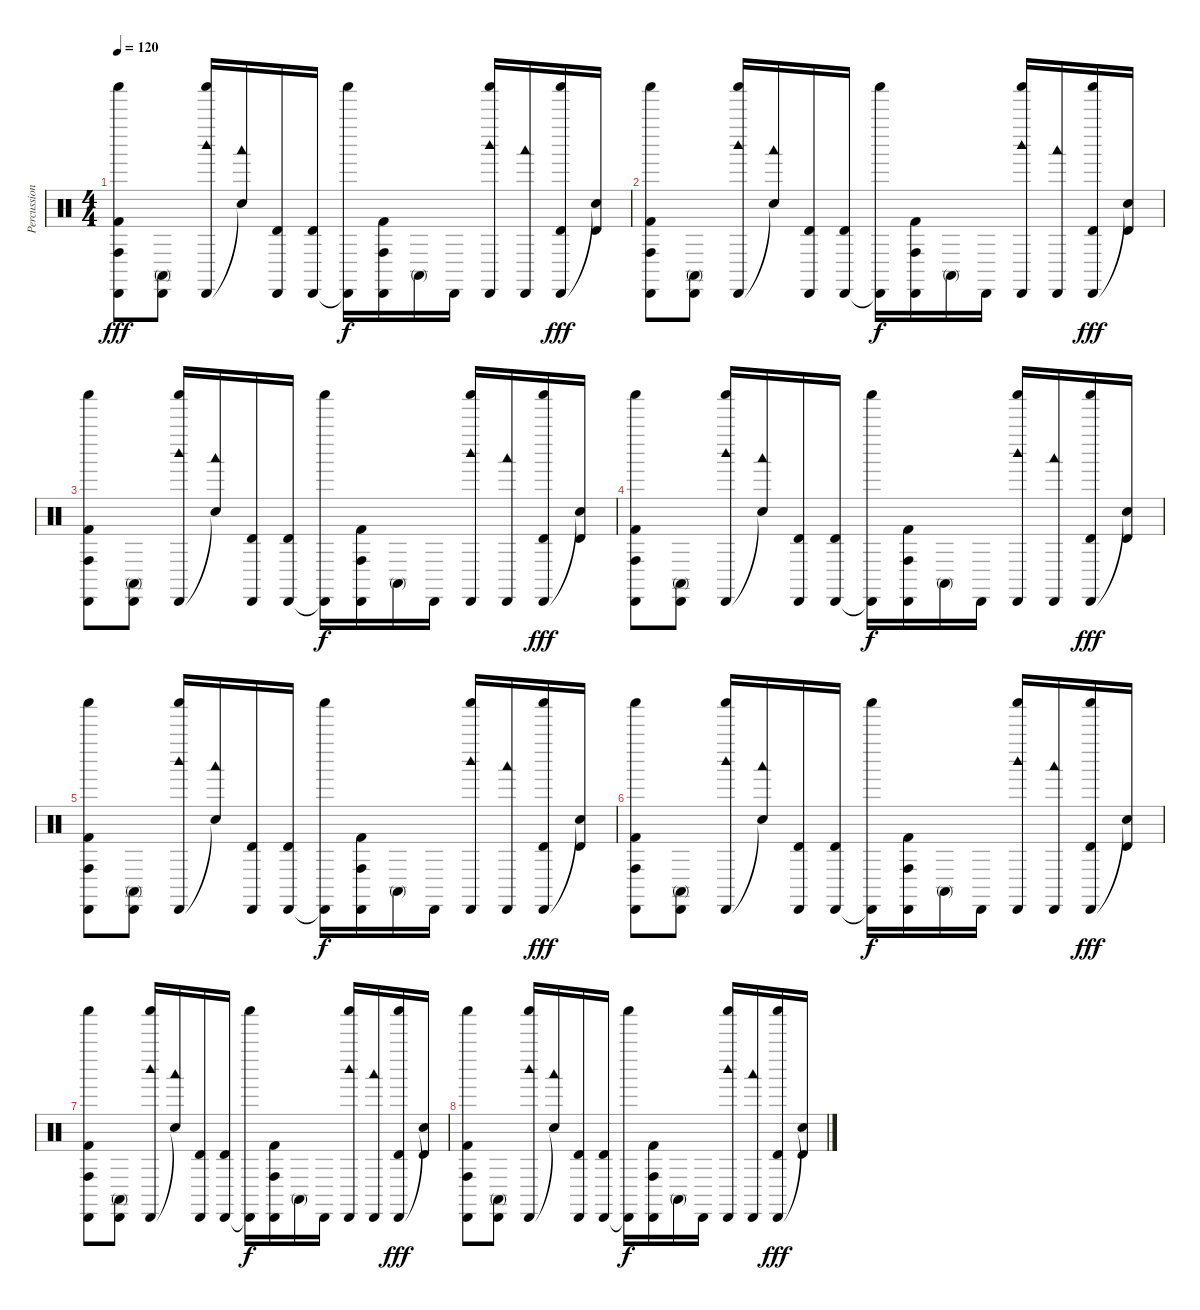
\track ("Percussion" "Percussion") {instrument percussion}
\staff {score}
\articulation defaults
\ts (4 4)
\tempo 120
\clef neutral
\ks c
("Cabasa (hit)" "Conga high (hit)" "Kick (hit) 2" "Shaker (hit)").8{dy fff} ("Cabasa (hit)" "Conga high (mute)").8 ("Cabasa (hit)" "Woodblock high (hit)" "Shaker (hit)").16 ("Snare (hit)"{t} "Woodblock low (hit)").16 ("Cabasa (hit)" "Timbale high (hit)").16 ("Cabasa (hit)" "Timbale high (hit)").16 ("Cabasa (hit)"{t} "Shaker (hit)").16{dy f} ("Cabasa (hit)" "Conga high (hit)" "Kick (hit) 2").16 "Conga high (mute)".16 "Cabasa (hit)".16 ("Cabasa (hit)" "Woodblock high (hit)" "Shaker (hit)").16 ("Cabasa (hit)" "Woodblock low (hit)").16 ("Cabasa (hit)" "Timbale high (hit)" "Shaker (hit)").16{dy fff} ("Snare (hit)"{t} "Timbale high (hit)").16 |
("Cabasa (hit)" "Conga high (hit)" "Kick (hit) 2" "Shaker (hit)").8 ("Cabasa (hit)" "Conga high (mute)").8 ("Cabasa (hit)" "Woodblock high (hit)" "Shaker (hit)").16 ("Snare (hit)"{t} "Woodblock low (hit)").16 ("Cabasa (hit)" "Timbale high (hit)").16 ("Cabasa (hit)" "Timbale high (hit)").16 ("Cabasa (hit)"{t} "Shaker (hit)").16{dy f} ("Cabasa (hit)" "Conga high (hit)" "Kick (hit) 2").16 "Conga high (mute)".16 "Cabasa (hit)".16 ("Cabasa (hit)" "Woodblock high (hit)" "Shaker (hit)").16 ("Cabasa (hit)" "Woodblock low (hit)").16 ("Cabasa (hit)" "Timbale high (hit)" "Shaker (hit)").16{dy fff} ("Snare (hit)"{t} "Timbale high (hit)").16 |
("Cabasa (hit)" "Conga high (hit)" "Kick (hit) 2" "Shaker (hit)").8 ("Cabasa (hit)" "Conga high (mute)").8 ("Cabasa (hit)" "Woodblock high (hit)" "Shaker (hit)").16 ("Snare (hit)"{t} "Woodblock low (hit)").16 ("Cabasa (hit)" "Timbale high (hit)").16 ("Cabasa (hit)" "Timbale high (hit)").16 ("Cabasa (hit)"{t} "Shaker (hit)").16{dy f} ("Cabasa (hit)" "Conga high (hit)" "Kick (hit) 2").16 "Conga high (mute)".16 "Cabasa (hit)".16 ("Cabasa (hit)" "Woodblock high (hit)" "Shaker (hit)").16 ("Cabasa (hit)" "Woodblock low (hit)").16 ("Cabasa (hit)" "Timbale high (hit)" "Shaker (hit)").16{dy fff} ("Snare (hit)"{t} "Timbale high (hit)").16 |
("Cabasa (hit)" "Conga high (hit)" "Kick (hit) 2" "Shaker (hit)").8 ("Cabasa (hit)" "Conga high (mute)").8 ("Cabasa (hit)" "Woodblock high (hit)" "Shaker (hit)").16 ("Snare (hit)"{t} "Woodblock low (hit)").16 ("Cabasa (hit)" "Timbale high (hit)").16 ("Cabasa (hit)" "Timbale high (hit)").16 ("Cabasa (hit)"{t} "Shaker (hit)").16{dy f} ("Cabasa (hit)" "Conga high (hit)" "Kick (hit) 2").16 "Conga high (mute)".16 "Cabasa (hit)".16 ("Cabasa (hit)" "Woodblock high (hit)" "Shaker (hit)").16 ("Cabasa (hit)" "Woodblock low (hit)").16 ("Cabasa (hit)" "Timbale high (hit)" "Shaker (hit)").16{dy fff} ("Snare (hit)"{t} "Timbale high (hit)").16 |
("Cabasa (hit)" "Conga high (hit)" "Kick (hit) 2" "Shaker (hit)").8 ("Cabasa (hit)" "Conga high (mute)").8 ("Cabasa (hit)" "Woodblock high (hit)" "Shaker (hit)").16 ("Snare (hit)"{t} "Woodblock low (hit)").16 ("Cabasa (hit)" "Timbale high (hit)").16 ("Cabasa (hit)" "Timbale high (hit)").16 ("Cabasa (hit)"{t} "Shaker (hit)").16{dy f} ("Cabasa (hit)" "Conga high (hit)" "Kick (hit) 2").16 "Conga high (mute)".16 "Cabasa (hit)".16 ("Cabasa (hit)" "Woodblock high (hit)" "Shaker (hit)").16 ("Cabasa (hit)" "Woodblock low (hit)").16 ("Cabasa (hit)" "Timbale high (hit)" "Shaker (hit)").16{dy fff} ("Snare (hit)"{t} "Timbale high (hit)").16 |
("Cabasa (hit)" "Conga high (hit)" "Kick (hit) 2" "Shaker (hit)").8 ("Cabasa (hit)" "Conga high (mute)").8 ("Cabasa (hit)" "Woodblock high (hit)" "Shaker (hit)").16 ("Snare (hit)"{t} "Woodblock low (hit)").16 ("Cabasa (hit)" "Timbale high (hit)").16 ("Cabasa (hit)" "Timbale high (hit)").16 ("Cabasa (hit)"{t} "Shaker (hit)").16{dy f} ("Cabasa (hit)" "Conga high (hit)" "Kick (hit) 2").16 "Conga high (mute)".16 "Cabasa (hit)".16 ("Cabasa (hit)" "Woodblock high (hit)" "Shaker (hit)").16 ("Cabasa (hit)" "Woodblock low (hit)").16 ("Cabasa (hit)" "Timbale high (hit)" "Shaker (hit)").16{dy fff} ("Snare (hit)"{t} "Timbale high (hit)").16 |
("Cabasa (hit)" "Conga high (hit)" "Kick (hit) 2" "Shaker (hit)").8 ("Cabasa (hit)" "Conga high (mute)").8 ("Cabasa (hit)" "Woodblock high (hit)" "Shaker (hit)").16 ("Snare (hit)"{t} "Woodblock low (hit)").16 ("Cabasa (hit)" "Timbale high (hit)").16 ("Cabasa (hit)" "Timbale high (hit)").16 ("Cabasa (hit)"{t} "Shaker (hit)").16{dy f} ("Cabasa (hit)" "Conga high (hit)" "Kick (hit) 2").16 "Conga high (mute)".16 "Cabasa (hit)".16 ("Cabasa (hit)" "Woodblock high (hit)" "Shaker (hit)").16 ("Cabasa (hit)" "Woodblock low (hit)").16 ("Cabasa (hit)" "Timbale high (hit)" "Shaker (hit)").16{dy fff} ("Snare (hit)"{t} "Timbale high (hit)").16 |
("Cabasa (hit)" "Conga high (hit)" "Kick (hit) 2" "Shaker (hit)").8 ("Cabasa (hit)" "Conga high (mute)").8 ("Cabasa (hit)" "Woodblock high (hit)" "Shaker (hit)").16 ("Snare (hit)"{t} "Woodblock low (hit)").16 ("Cabasa (hit)" "Timbale high (hit)").16 ("Cabasa (hit)" "Timbale high (hit)").16 ("Cabasa (hit)"{t} "Shaker (hit)").16{dy f} ("Cabasa (hit)" "Conga high (hit)" "Kick (hit) 2").16 "Conga high (mute)".16 "Cabasa (hit)".16 ("Cabasa (hit)" "Woodblock high (hit)" "Shaker (hit)").16 ("Cabasa (hit)" "Woodblock low (hit)").16 ("Cabasa (hit)" "Timbale high (hit)" "Shaker (hit)").16{dy fff} ("Snare (hit)"{t} "Timbale high (hit)").16
